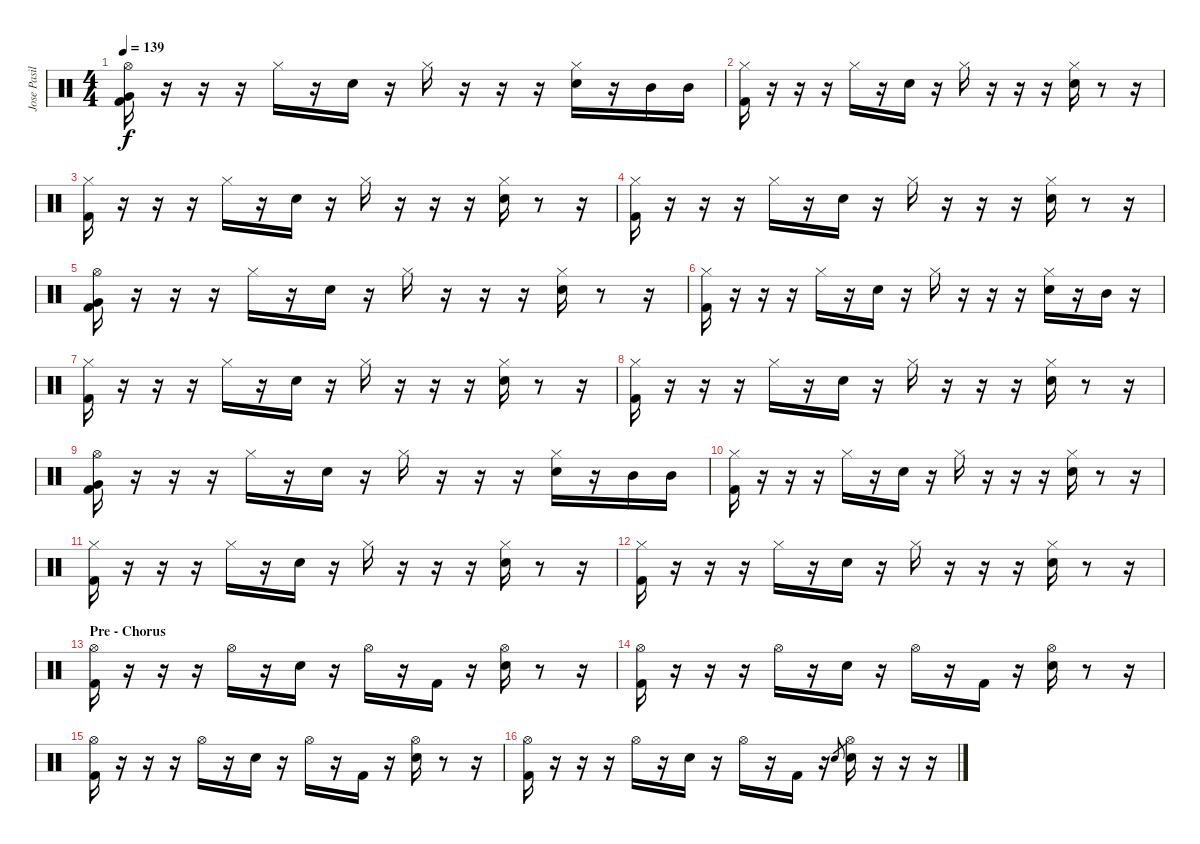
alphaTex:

\track ("Jose Pasillas - Drums" "Jose Pasil") {instrument percussion}
\staff {score}
\articulation defaults
\ts (4 4)
\tempo 139
\clef neutral
\ks c
("Hi-Hat (open)" "Very Low Tom (hit)" "Kick (hit) 2").16{dy f} r.16 r.16 r.16 "Hi-Hat (closed)".16 r.16 "Electric Snare (hit)".16 r.16 "Hi-Hat (closed)".16 r.16 r.16 r.16 ("Hi-Hat (closed)" "Electric Snare (hit)").16 r.16 "Mid Tom (hit)".16 "Mid Tom (hit)".16 |
("Hi-Hat (closed)" "Kick (hit) 2").16 r.16 r.16 r.16 "Hi-Hat (closed)".16 r.16 "Electric Snare (hit)".16 r.16 "Hi-Hat (closed)".16 r.16 r.16 r.16 ("Hi-Hat (closed)" "Electric Snare (hit)").16 r.8 r.16 |
("Hi-Hat (closed)" "Kick (hit) 2").16 r.16 r.16 r.16 "Hi-Hat (closed)".16 r.16 "Electric Snare (hit)".16 r.16 "Hi-Hat (closed)".16 r.16 r.16 r.16 ("Hi-Hat (closed)" "Electric Snare (hit)").16 r.8 r.16 |
("Hi-Hat (closed)" "Kick (hit) 2").16 r.16 r.16 r.16 "Hi-Hat (closed)".16 r.16 "Electric Snare (hit)".16 r.16 "Hi-Hat (closed)".16 r.16 r.16 r.16 ("Hi-Hat (closed)" "Electric Snare (hit)").16 r.8 r.16 |
("Hi-Hat (open)" "Very Low Tom (hit)" "Kick (hit) 2").16 r.16 r.16 r.16 "Hi-Hat (closed)".16 r.16 "Electric Snare (hit)".16 r.16 "Hi-Hat (closed)".16 r.16 r.16 r.16 ("Hi-Hat (closed)" "Electric Snare (hit)").16 r.8 r.16 |
("Hi-Hat (closed)" "Kick (hit) 2").16 r.16 r.16 r.16 "Hi-Hat (closed)".16 r.16 "Electric Snare (hit)".16 r.16 "Hi-Hat (closed)".16 r.16 r.16 r.16 ("Hi-Hat (closed)" "Electric Snare (hit)").16 r.16 "Mid Tom (hit)".16 r.16 |
("Hi-Hat (closed)" "Kick (hit) 2").16 r.16 r.16 r.16 "Hi-Hat (closed)".16 r.16 "Electric Snare (hit)".16 r.16 "Hi-Hat (closed)".16 r.16 r.16 r.16 ("Hi-Hat (closed)" "Electric Snare (hit)").16 r.8 r.16 |
("Hi-Hat (closed)" "Kick (hit) 2").16 r.16 r.16 r.16 "Hi-Hat (closed)".16 r.16 "Electric Snare (hit)".16 r.16 "Hi-Hat (closed)".16 r.16 r.16 r.16 ("Hi-Hat (closed)" "Electric Snare (hit)").16 r.8 r.16 |
("Hi-Hat (open)" "Very Low Tom (hit)" "Kick (hit) 2").16 r.16 r.16 r.16 "Hi-Hat (closed)".16 r.16 "Electric Snare (hit)".16 r.16 "Hi-Hat (closed)".16 r.16 r.16 r.16 ("Hi-Hat (closed)" "Electric Snare (hit)").16 r.16 "Mid Tom (hit)".16 "Mid Tom (hit)".16 |
("Hi-Hat (closed)" "Kick (hit) 2").16 r.16 r.16 r.16 "Hi-Hat (closed)".16 r.16 "Electric Snare (hit)".16 r.16 "Hi-Hat (closed)".16 r.16 r.16 r.16 ("Hi-Hat (closed)" "Electric Snare (hit)").16 r.8 r.16 |
("Hi-Hat (closed)" "Kick (hit) 2").16 r.16 r.16 r.16 "Hi-Hat (closed)".16 r.16 "Electric Snare (hit)".16 r.16 "Hi-Hat (closed)".16 r.16 r.16 r.16 ("Hi-Hat (closed)" "Electric Snare (hit)").16 r.8 r.16 |
("Hi-Hat (closed)" "Kick (hit) 2").16 r.16 r.16 r.16 "Hi-Hat (closed)".16 r.16 "Electric Snare (hit)".16 r.16 "Hi-Hat (closed)".16 r.16 r.16 r.16 ("Hi-Hat (closed)" "Electric Snare (hit)").16 r.8 r.16 |
\section ("" "Pre - Chorus")
("Hi-Hat (open)" "Kick (hit) 2").16 r.16 r.16 r.16 "Hi-Hat (open)".16 r.16 "Electric Snare (hit)".16 r.16 "Hi-Hat (open)".16 r.16 "Kick (hit) 2".16 r.16 ("Hi-Hat (open)" "Electric Snare (hit)").16 r.8 r.16 |
("Hi-Hat (open)" "Kick (hit) 2").16 r.16 r.16 r.16 "Hi-Hat (open)".16 r.16 "Electric Snare (hit)".16 r.16 "Hi-Hat (open)".16 r.16 "Kick (hit) 2".16 r.16 ("Hi-Hat (open)" "Electric Snare (hit)").16 r.8 r.16 |
("Hi-Hat (open)" "Kick (hit) 2").16 r.16 r.16 r.16 "Hi-Hat (open)".16 r.16 "Electric Snare (hit)".16 r.16 "Hi-Hat (open)".16 r.16 "Kick (hit) 2".16 r.16 ("Hi-Hat (open)" "Electric Snare (hit)").16 r.8 r.16 |
("Hi-Hat (open)" "Kick (hit) 2").16 r.16 r.16 r.16 "Hi-Hat (open)".16 r.16 "Electric Snare (hit)".16 r.16 "Hi-Hat (open)".16 r.16 "Kick (hit) 2".16 r.16 "Electric Snare (hit)".8{gr} ("Hi-Hat (open)" "Electric Snare (hit)").16 r.16 r.16 r.16
